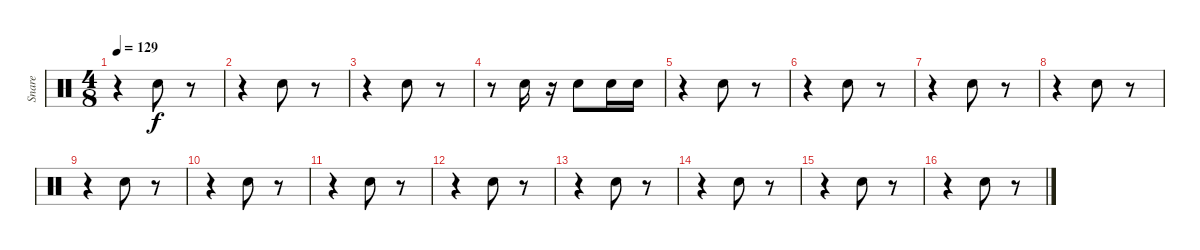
\track ("Snare" "Snare") {instrument percussion}
\staff {score}
\articulation defaults
\ts (4 8)
\tempo 129
\clef neutral
\ks c
r.4{dy f} "Snare (hit) 2".8 r.8 |
r.4 "Snare (hit) 2".8 r.8 |
r.4 "Snare (hit) 2".8 r.8 |
r.8 "Snare (hit) 2".16 r.16 "Snare (hit) 2".8 "Snare (hit) 2".16 "Snare (hit) 2".16 |
r.4 "Snare (hit) 2".8 r.8 |
r.4 "Snare (hit) 2".8 r.8 |
r.4 "Snare (hit) 2".8 r.8 |
r.4 "Snare (hit) 2".8 r.8 |
r.4 "Snare (hit) 2".8 r.8 |
r.4 "Snare (hit) 2".8 r.8 |
r.4 "Snare (hit) 2".8 r.8 |
r.4 "Snare (hit) 2".8 r.8 |
r.4 "Snare (hit) 2".8 r.8 |
r.4 "Snare (hit) 2".8 r.8 |
r.4 "Snare (hit) 2".8 r.8 |
r.4 "Snare (hit) 2".8 r.8
